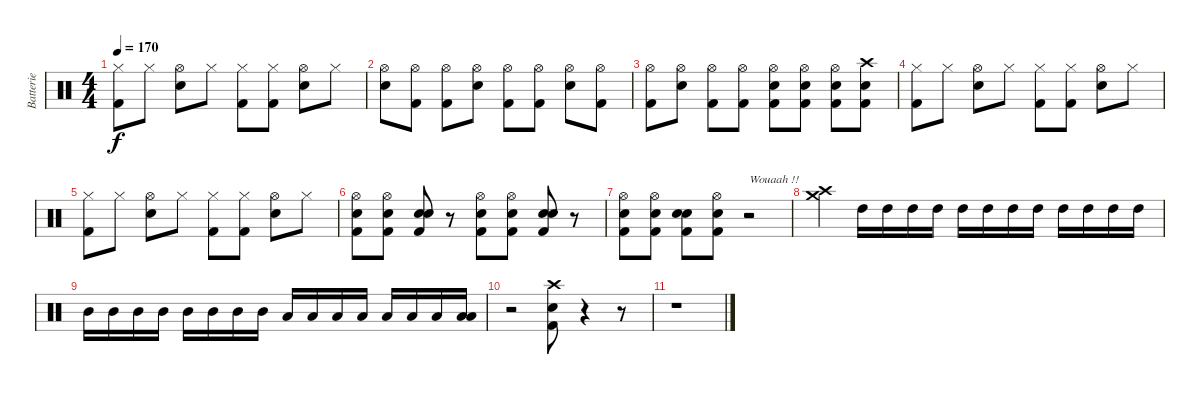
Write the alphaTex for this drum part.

\track ("Batterie" "Batterie") {instrument percussion}
\staff {score}
\articulation defaults
\ts (4 4)
\tempo 170
\clef neutral
\ks c
("Kick (hit) 2" "Hi-Hat (closed)").8{dy f} "Hi-Hat (closed)".8 ("Snare (hit) 2" "Hi-Hat (open)").8 "Hi-Hat (closed)".8 ("Kick (hit) 2" "Hi-Hat (closed)").8 ("Kick (hit) 2" "Hi-Hat (closed)").8 ("Snare (hit) 2" "Hi-Hat (open)").8 "Hi-Hat (closed)".8 |
("Snare (hit) 2" "Hi-Hat (open)").8 ("Kick (hit) 2" "Hi-Hat (open)").8 ("Kick (hit) 2" "Hi-Hat (open)").8 ("Snare (hit) 2" "Hi-Hat (open)").8 ("Kick (hit) 2" "Hi-Hat (open)").8 ("Kick (hit) 2" "Hi-Hat (open)").8 ("Snare (hit) 2" "Hi-Hat (open)").8 ("Kick (hit) 2" "Hi-Hat (open)").8 |
("Kick (hit) 2" "Hi-Hat (open)").8 ("Snare (hit) 2" "Hi-Hat (open)").8 ("Kick (hit) 2" "Hi-Hat (open)").8 ("Kick (hit) 2" "Hi-Hat (open)").8 ("Kick (hit) 2" "Snare (hit) 2" "Hi-Hat (open)").8 ("Kick (hit) 2" "Snare (hit) 2" "Hi-Hat (open)").8 ("Kick (hit) 2" "Snare (hit) 2" "Hi-Hat (open)").8 ("Kick (hit) 2" "Snare (hit) 2" "Crash high (hit)").8 |
("Kick (hit) 2" "Hi-Hat (closed)").8 "Hi-Hat (closed)".8 ("Snare (hit) 2" "Hi-Hat (open)").8 "Hi-Hat (closed)".8 ("Kick (hit) 2" "Hi-Hat (closed)").8 ("Kick (hit) 2" "Hi-Hat (closed)").8 ("Snare (hit) 2" "Hi-Hat (open)").8 "Hi-Hat (closed)".8 |
("Kick (hit) 2" "Hi-Hat (closed)").8 "Hi-Hat (closed)".8 ("Snare (hit) 2" "Hi-Hat (open)").8 "Hi-Hat (closed)".8 ("Kick (hit) 2" "Hi-Hat (closed)").8 ("Kick (hit) 2" "Hi-Hat (closed)").8 ("Snare (hit) 2" "Hi-Hat (open)").8 "Hi-Hat (closed)".8 |
("Kick (hit) 2" "Snare (hit) 2" "Hi-Hat (open)").8 ("Kick (hit) 2" "Snare (hit) 2" "Hi-Hat (open)").8 ("Kick (hit) 2" "Snare (hit) 2" "Snare (hit) 2").8 r.8 ("Kick (hit) 2" "Snare (hit) 2" "Hi-Hat (open)").8 ("Kick (hit) 2" "Snare (hit) 2" "Hi-Hat (open)").8 ("Kick (hit) 2" "Snare (hit) 2" "Snare (hit) 2").8 r.8 |
("Kick (hit) 2" "Snare (hit) 2" "Hi-Hat (open)").8 ("Kick (hit) 2" "Snare (hit) 2" "Hi-Hat (open)").8 ("Kick (hit) 2" "Snare (hit) 2" "Snare (hit) 2").8 ("Kick (hit) 2" "Snare (hit) 2" "Hi-Hat (open)").8 r.2{txt "Wouaah !!"} |
("Crash high (hit)" "Crash medium (hit)").4 "High Tom (hit)".16 "High Tom (hit)".16 "High Tom (hit)".16 "High Tom (hit)".16 "High Tom (hit)".16 "High Tom (hit)".16 "High Tom (hit)".16 "High Tom (hit)".16 "High Tom (hit)".16 "High Tom (hit)".16 "High Tom (hit)".16 "High Tom (hit)".16 |
"Mid Tom (hit)".16 "Mid Tom (hit)".16 "Mid Tom (hit)".16 "Mid Tom (hit)".16 "Mid Tom (hit)".16 "Mid Tom (hit)".16 "Mid Tom (hit)".16 "Mid Tom (hit)".16 "Low Tom (hit)".16 "Low Tom (hit)".16 "Low Tom (hit)".16 "Low Tom (hit)".16 "Low Tom (hit)".16 "Low Tom (hit)".16 "Low Tom (hit)".16 ("Low Tom (hit)" "Low Tom (hit)").16 |
r.2 ("Kick (hit) 2" "Snare (hit) 2" "Crash high (hit)").8 r.4 r.8 |
r.1
